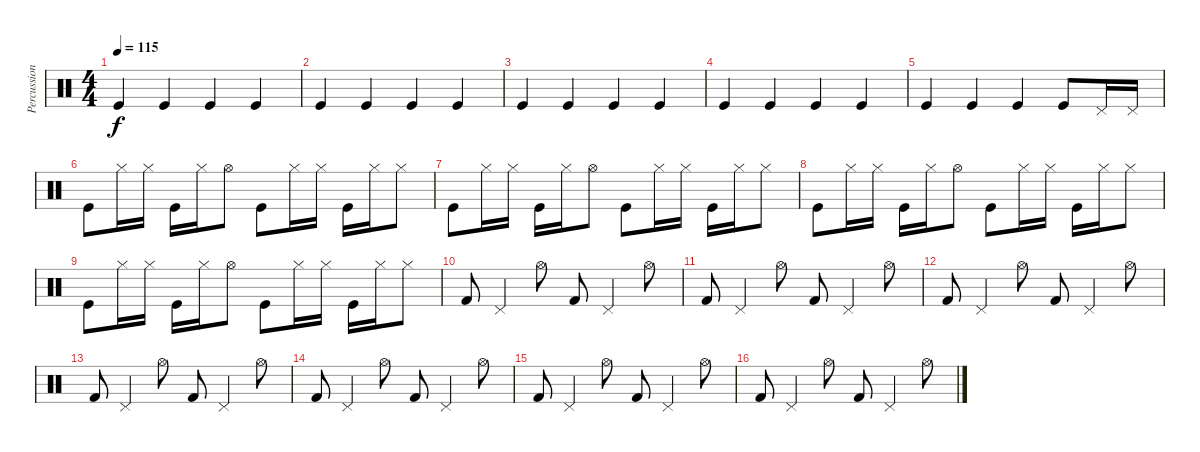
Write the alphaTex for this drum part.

\track ("Percussion" "Percussion") {instrument percussion}
\staff {score}
\articulation defaults
\ts (4 4)
\tempo 115
\clef neutral
\ks c "Kick (hit)".4{dy f} "Kick (hit)".4 "Kick (hit)".4 "Kick (hit)".4
|
"Kick (hit)".4 "Kick (hit)".4 "Kick (hit)".4 "Kick (hit)".4 |
"Kick (hit)".4 "Kick (hit)".4 "Kick (hit)".4 "Kick (hit)".4 |
"Kick (hit)".4 "Kick (hit)".4 "Kick (hit)".4 "Kick (hit)".4 |
"Kick (hit)".4 "Kick (hit)".4 "Kick (hit)".4 "Kick (hit)".8 "Pedal Hi-Hat (hit)".16 "Pedal Hi-Hat (hit)".16 |
"Kick (hit)".8 "Hi-Hat (closed)".16 "Hi-Hat (closed)".16 "Kick (hit)".16 "Hi-Hat (closed)".16 "Hi-Hat (open)".8 "Kick (hit)".8 "Hi-Hat (closed)".16 "Hi-Hat (closed)".16 "Kick (hit)".16 "Hi-Hat (closed)".16 "Hi-Hat (closed)".8 |
"Kick (hit)".8 "Hi-Hat (closed)".16 "Hi-Hat (closed)".16 "Kick (hit)".16 "Hi-Hat (closed)".16 "Hi-Hat (open)".8 "Kick (hit)".8 "Hi-Hat (closed)".16 "Hi-Hat (closed)".16 "Kick (hit)".16 "Hi-Hat (closed)".16 "Hi-Hat (closed)".8 |
"Kick (hit)".8 "Hi-Hat (closed)".16 "Hi-Hat (closed)".16 "Kick (hit)".16 "Hi-Hat (closed)".16 "Hi-Hat (open)".8 "Kick (hit)".8 "Hi-Hat (closed)".16 "Hi-Hat (closed)".16 "Kick (hit)".16 "Hi-Hat (closed)".16 "Hi-Hat (closed)".8 |
"Kick (hit)".8 "Hi-Hat (closed)".16 "Hi-Hat (closed)".16 "Kick (hit)".16 "Hi-Hat (closed)".16 "Hi-Hat (open)".8 "Kick (hit)".8 "Hi-Hat (closed)".16 "Hi-Hat (closed)".16 "Kick (hit)".16 "Hi-Hat (closed)".16 "Hi-Hat (closed)".8 |
"Kick (hit) 2".8 "Pedal Hi-Hat (hit)".4 "Hi-Hat (open)".8 "Kick (hit) 2".8 "Pedal Hi-Hat (hit)".4 "Hi-Hat (open)".8 |
"Kick (hit) 2".8 "Pedal Hi-Hat (hit)".4 "Hi-Hat (open)".8 "Kick (hit) 2".8 "Pedal Hi-Hat (hit)".4 "Hi-Hat (open)".8 |
"Kick (hit) 2".8 "Pedal Hi-Hat (hit)".4 "Hi-Hat (open)".8 "Kick (hit) 2".8 "Pedal Hi-Hat (hit)".4 "Hi-Hat (open)".8 |
"Kick (hit) 2".8 "Pedal Hi-Hat (hit)".4 "Hi-Hat (open)".8 "Kick (hit) 2".8 "Pedal Hi-Hat (hit)".4 "Hi-Hat (open)".8 |
"Kick (hit) 2".8 "Pedal Hi-Hat (hit)".4 "Hi-Hat (open)".8 "Kick (hit) 2".8 "Pedal Hi-Hat (hit)".4 "Hi-Hat (open)".8 |
"Kick (hit) 2".8 "Pedal Hi-Hat (hit)".4 "Hi-Hat (open)".8 "Kick (hit) 2".8 "Pedal Hi-Hat (hit)".4 "Hi-Hat (open)".8 |
"Kick (hit) 2".8 "Pedal Hi-Hat (hit)".4 "Hi-Hat (open)".8 "Kick (hit) 2".8 "Pedal Hi-Hat (hit)".4 "Hi-Hat (open)".8
